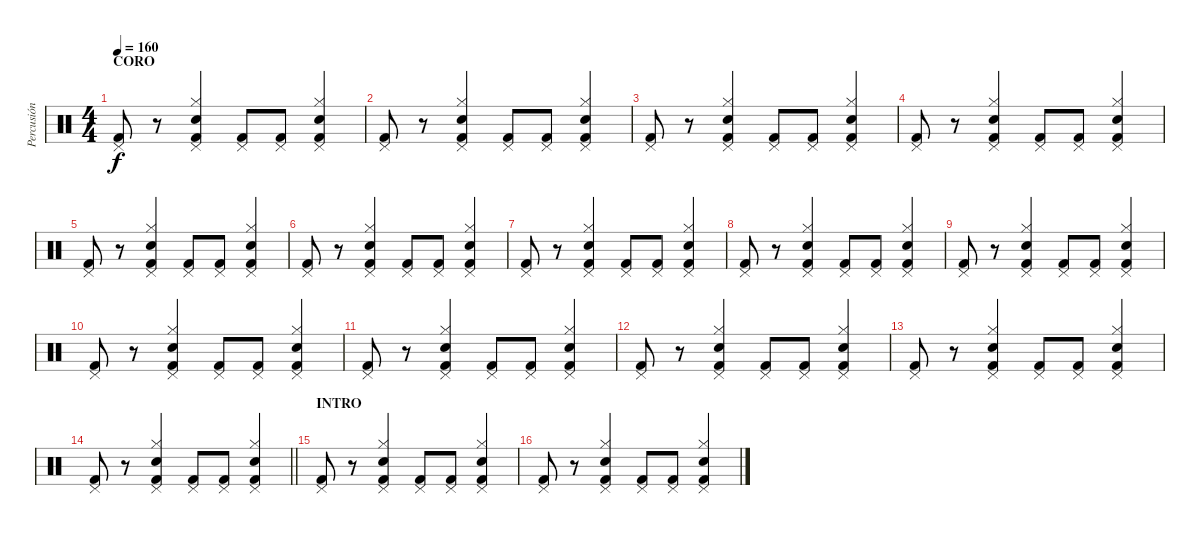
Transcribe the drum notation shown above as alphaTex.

\track ("Percusión" "Percusión") {instrument percussion}
\staff {score}
\articulation defaults
\ts (4 4)
\section ("" "CORO")
\tempo 160
\clef neutral
\ks c
("Pedal Hi-Hat (hit)" "Kick (hit) 2").8{dy f} r.8 ("Hi-Hat (closed)" "Pedal Hi-Hat (hit)" "Electric Snare (hit)" "Kick (hit) 2").4 ("Pedal Hi-Hat (hit)" "Kick (hit) 2").8 ("Pedal Hi-Hat (hit)" "Kick (hit) 2").8 ("Hi-Hat (closed)" "Pedal Hi-Hat (hit)" "Electric Snare (hit)" "Kick (hit) 2").4 |
("Pedal Hi-Hat (hit)" "Kick (hit) 2").8 r.8 ("Hi-Hat (closed)" "Pedal Hi-Hat (hit)" "Electric Snare (hit)" "Kick (hit) 2").4 ("Pedal Hi-Hat (hit)" "Kick (hit) 2").8 ("Pedal Hi-Hat (hit)" "Kick (hit) 2").8 ("Hi-Hat (closed)" "Pedal Hi-Hat (hit)" "Electric Snare (hit)" "Kick (hit) 2").4 |
("Pedal Hi-Hat (hit)" "Kick (hit) 2").8 r.8 ("Hi-Hat (closed)" "Pedal Hi-Hat (hit)" "Electric Snare (hit)" "Kick (hit) 2").4 ("Pedal Hi-Hat (hit)" "Kick (hit) 2").8 ("Pedal Hi-Hat (hit)" "Kick (hit) 2").8 ("Hi-Hat (closed)" "Pedal Hi-Hat (hit)" "Electric Snare (hit)" "Kick (hit) 2").4 |
("Pedal Hi-Hat (hit)" "Kick (hit) 2").8 r.8 ("Hi-Hat (closed)" "Pedal Hi-Hat (hit)" "Electric Snare (hit)" "Kick (hit) 2").4 ("Pedal Hi-Hat (hit)" "Kick (hit) 2").8 ("Pedal Hi-Hat (hit)" "Kick (hit) 2").8 ("Hi-Hat (closed)" "Pedal Hi-Hat (hit)" "Electric Snare (hit)" "Kick (hit) 2").4 |
("Pedal Hi-Hat (hit)" "Kick (hit) 2").8 r.8 ("Hi-Hat (closed)" "Pedal Hi-Hat (hit)" "Electric Snare (hit)" "Kick (hit) 2").4 ("Pedal Hi-Hat (hit)" "Kick (hit) 2").8 ("Pedal Hi-Hat (hit)" "Kick (hit) 2").8 ("Hi-Hat (closed)" "Pedal Hi-Hat (hit)" "Electric Snare (hit)" "Kick (hit) 2").4 |
("Pedal Hi-Hat (hit)" "Kick (hit) 2").8 r.8 ("Hi-Hat (closed)" "Pedal Hi-Hat (hit)" "Electric Snare (hit)" "Kick (hit) 2").4 ("Pedal Hi-Hat (hit)" "Kick (hit) 2").8 ("Pedal Hi-Hat (hit)" "Kick (hit) 2").8 ("Hi-Hat (closed)" "Pedal Hi-Hat (hit)" "Electric Snare (hit)" "Kick (hit) 2").4 |
("Pedal Hi-Hat (hit)" "Kick (hit) 2").8 r.8 ("Hi-Hat (closed)" "Pedal Hi-Hat (hit)" "Electric Snare (hit)" "Kick (hit) 2").4 ("Pedal Hi-Hat (hit)" "Kick (hit) 2").8 ("Pedal Hi-Hat (hit)" "Kick (hit) 2").8 ("Hi-Hat (closed)" "Pedal Hi-Hat (hit)" "Electric Snare (hit)" "Kick (hit) 2").4 |
("Pedal Hi-Hat (hit)" "Kick (hit) 2").8 r.8 ("Hi-Hat (closed)" "Pedal Hi-Hat (hit)" "Electric Snare (hit)" "Kick (hit) 2").4 ("Pedal Hi-Hat (hit)" "Kick (hit) 2").8 ("Pedal Hi-Hat (hit)" "Kick (hit) 2").8 ("Hi-Hat (closed)" "Pedal Hi-Hat (hit)" "Electric Snare (hit)" "Kick (hit) 2").4 |
("Pedal Hi-Hat (hit)" "Kick (hit) 2").8 r.8 ("Hi-Hat (closed)" "Pedal Hi-Hat (hit)" "Electric Snare (hit)" "Kick (hit) 2").4 ("Pedal Hi-Hat (hit)" "Kick (hit) 2").8 ("Pedal Hi-Hat (hit)" "Kick (hit) 2").8 ("Hi-Hat (closed)" "Pedal Hi-Hat (hit)" "Electric Snare (hit)" "Kick (hit) 2").4 |
("Pedal Hi-Hat (hit)" "Kick (hit) 2").8 r.8 ("Hi-Hat (closed)" "Pedal Hi-Hat (hit)" "Electric Snare (hit)" "Kick (hit) 2").4 ("Pedal Hi-Hat (hit)" "Kick (hit) 2").8 ("Pedal Hi-Hat (hit)" "Kick (hit) 2").8 ("Hi-Hat (closed)" "Pedal Hi-Hat (hit)" "Electric Snare (hit)" "Kick (hit) 2").4 |
("Pedal Hi-Hat (hit)" "Kick (hit) 2").8 r.8 ("Hi-Hat (closed)" "Pedal Hi-Hat (hit)" "Electric Snare (hit)" "Kick (hit) 2").4 ("Pedal Hi-Hat (hit)" "Kick (hit) 2").8 ("Pedal Hi-Hat (hit)" "Kick (hit) 2").8 ("Hi-Hat (closed)" "Pedal Hi-Hat (hit)" "Electric Snare (hit)" "Kick (hit) 2").4 |
("Pedal Hi-Hat (hit)" "Kick (hit) 2").8 r.8 ("Hi-Hat (closed)" "Pedal Hi-Hat (hit)" "Electric Snare (hit)" "Kick (hit) 2").4 ("Pedal Hi-Hat (hit)" "Kick (hit) 2").8 ("Pedal Hi-Hat (hit)" "Kick (hit) 2").8 ("Hi-Hat (closed)" "Pedal Hi-Hat (hit)" "Electric Snare (hit)" "Kick (hit) 2").4 |
("Pedal Hi-Hat (hit)" "Kick (hit) 2").8 r.8 ("Hi-Hat (closed)" "Pedal Hi-Hat (hit)" "Electric Snare (hit)" "Kick (hit) 2").4 ("Pedal Hi-Hat (hit)" "Kick (hit) 2").8 ("Pedal Hi-Hat (hit)" "Kick (hit) 2").8 ("Hi-Hat (closed)" "Pedal Hi-Hat (hit)" "Electric Snare (hit)" "Kick (hit) 2").4 |
\barLineRight lightlight
("Pedal Hi-Hat (hit)" "Kick (hit) 2").8 r.8 ("Hi-Hat (closed)" "Pedal Hi-Hat (hit)" "Electric Snare (hit)" "Kick (hit) 2").4 ("Pedal Hi-Hat (hit)" "Kick (hit) 2").8 ("Pedal Hi-Hat (hit)" "Kick (hit) 2").8 ("Hi-Hat (closed)" "Pedal Hi-Hat (hit)" "Electric Snare (hit)" "Kick (hit) 2").4 |
\section ("" "INTRO")
("Pedal Hi-Hat (hit)" "Kick (hit) 2").8 r.8 ("Hi-Hat (closed)" "Pedal Hi-Hat (hit)" "Electric Snare (hit)" "Kick (hit) 2").4 ("Pedal Hi-Hat (hit)" "Kick (hit) 2").8 ("Pedal Hi-Hat (hit)" "Kick (hit) 2").8 ("Hi-Hat (closed)" "Pedal Hi-Hat (hit)" "Electric Snare (hit)" "Kick (hit) 2").4 |
("Pedal Hi-Hat (hit)" "Kick (hit) 2").8 r.8 ("Hi-Hat (closed)" "Pedal Hi-Hat (hit)" "Electric Snare (hit)" "Kick (hit) 2").4 ("Pedal Hi-Hat (hit)" "Kick (hit) 2").8 ("Pedal Hi-Hat (hit)" "Kick (hit) 2").8 ("Hi-Hat (closed)" "Pedal Hi-Hat (hit)" "Electric Snare (hit)" "Kick (hit) 2").4
